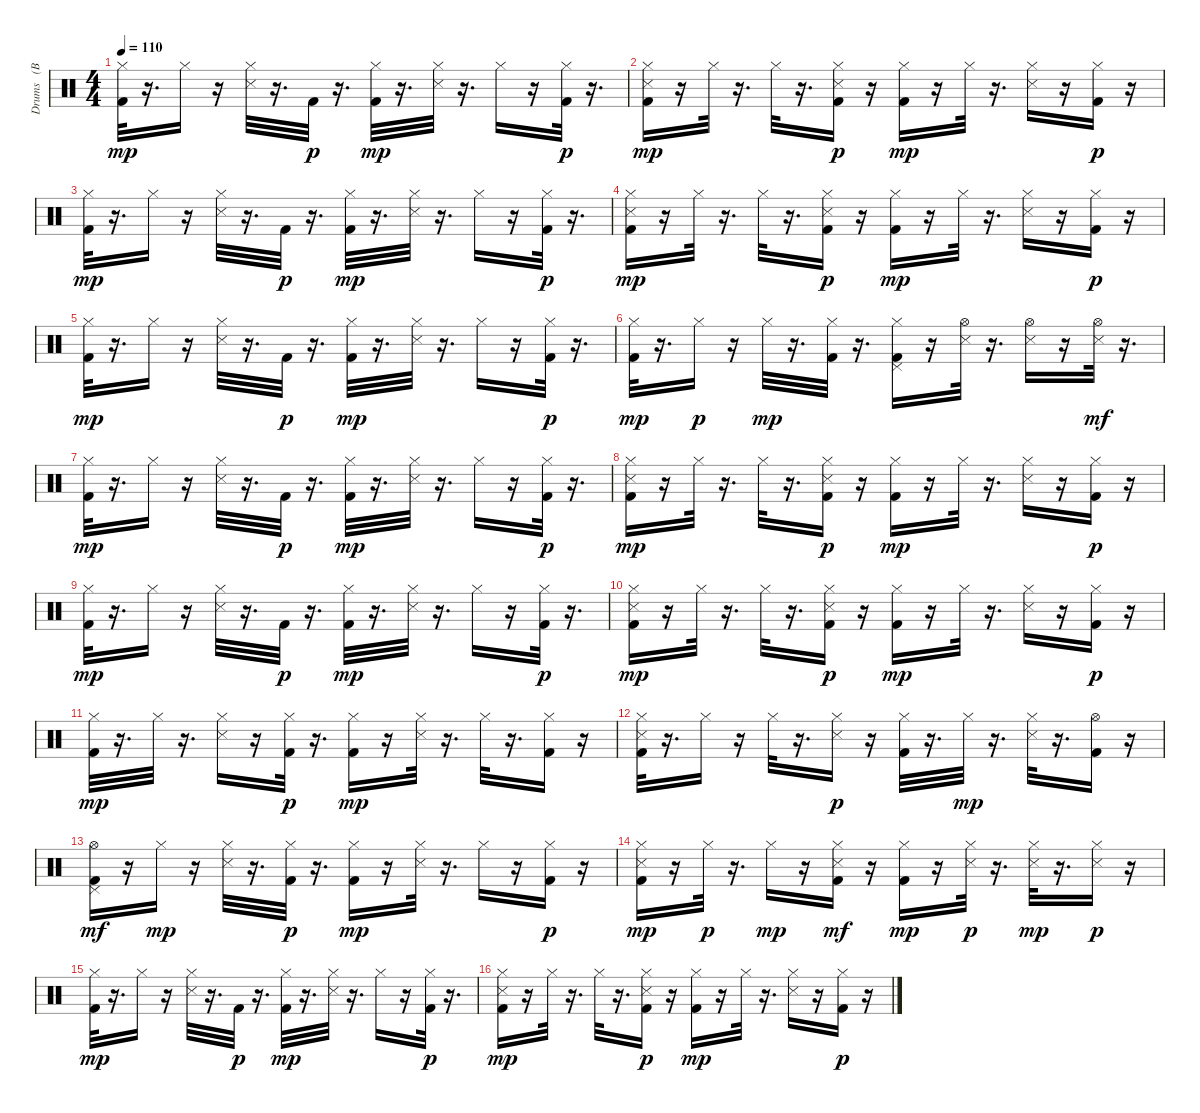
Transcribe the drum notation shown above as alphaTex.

\track ("Drums   (BB)" "Drums   (B") {instrument percussion}
\staff {score}
\articulation defaults
\ts (4 4)
\tempo 110
\clef neutral
\ks c
("Kick (hit) 2" "Hi-Hat (closed)").32{dy mp} r.16{d} "Hi-Hat (closed)".16 r.16 ("Hi-Hat (closed)" "Snare (side stick) 3").32 r.16{d} "Kick (hit) 2".32{dy p} r.16{d} ("Kick (hit) 2" "Hi-Hat (closed)").32{dy mp} r.16{d} ("Snare (side stick) 3" "Hi-Hat (closed)").32 r.16{d} "Hi-Hat (closed)".16 r.16 ("Hi-Hat (closed)" "Kick (hit) 2").32{dy p} r.16{d} |
("Kick (hit) 2" "Snare (side stick) 3" "Hi-Hat (closed)").16{dy mp} r.16 "Hi-Hat (closed)".32 r.16{d} "Hi-Hat (closed)".32 r.16{d} ("Snare (side stick) 3" "Hi-Hat (closed)" "Kick (hit) 2").16{dy p} r.16 ("Hi-Hat (closed)" "Kick (hit) 2").16{dy mp} r.16 "Hi-Hat (closed)".32 r.16{d} ("Snare (side stick) 3" "Hi-Hat (closed)").16 r.16 ("Hi-Hat (closed)" "Kick (hit) 2").16{dy p} r.16 |
("Kick (hit) 2" "Hi-Hat (closed)").32{dy mp} r.16{d} "Hi-Hat (closed)".16 r.16 ("Hi-Hat (closed)" "Snare (side stick) 3").32 r.16{d} "Kick (hit) 2".32{dy p} r.16{d} ("Kick (hit) 2" "Hi-Hat (closed)").32{dy mp} r.16{d} ("Snare (side stick) 3" "Hi-Hat (closed)").32 r.16{d} "Hi-Hat (closed)".16 r.16 ("Hi-Hat (closed)" "Kick (hit) 2").32{dy p} r.16{d} |
("Kick (hit) 2" "Snare (side stick) 3" "Hi-Hat (closed)").16{dy mp} r.16 "Hi-Hat (closed)".32 r.16{d} "Hi-Hat (closed)".32 r.16{d} ("Snare (side stick) 3" "Hi-Hat (closed)" "Kick (hit) 2").16{dy p} r.16 ("Hi-Hat (closed)" "Kick (hit) 2").16{dy mp} r.16 "Hi-Hat (closed)".32 r.16{d} ("Snare (side stick) 3" "Hi-Hat (closed)").16 r.16 ("Hi-Hat (closed)" "Kick (hit) 2").16{dy p} r.16 |
("Kick (hit) 2" "Hi-Hat (closed)").32{dy mp} r.16{d} "Hi-Hat (closed)".16 r.16 ("Hi-Hat (closed)" "Snare (side stick) 3").32 r.16{d} "Kick (hit) 2".32{dy p} r.16{d} ("Kick (hit) 2" "Hi-Hat (closed)").32{dy mp} r.16{d} ("Snare (side stick) 3" "Hi-Hat (closed)").32 r.16{d} "Hi-Hat (closed)".16 r.16 ("Hi-Hat (closed)" "Kick (hit) 2").32{dy p} r.16{d} |
("Hi-Hat (closed)" "Kick (hit) 2").32{dy mp} r.16{d} "Hi-Hat (closed)".16{dy p} r.16 "Hi-Hat (closed)".32{dy mp} r.16{d} ("Kick (hit) 2" "Hi-Hat (closed)").32 r.16{d} ("Pedal Hi-Hat (hit)" "Kick (hit) 2" "Hi-Hat (closed)").16 r.16 ("Hi-Hat (open)" "Snare (side stick) 3").32 r.16{d} ("Hi-Hat (open)" "Snare (side stick) 3").16 r.16 ("Hi-Hat (open)" "Snare (side stick) 3").32{dy mf} r.16{d} |
("Kick (hit) 2" "Hi-Hat (closed)").32{dy mp} r.16{d} "Hi-Hat (closed)".16 r.16 ("Hi-Hat (closed)" "Snare (side stick) 3").32 r.16{d} "Kick (hit) 2".32{dy p} r.16{d} ("Kick (hit) 2" "Hi-Hat (closed)").32{dy mp} r.16{d} ("Snare (side stick) 3" "Hi-Hat (closed)").32 r.16{d} "Hi-Hat (closed)".16 r.16 ("Hi-Hat (closed)" "Kick (hit) 2").32{dy p} r.16{d} |
("Kick (hit) 2" "Snare (side stick) 3" "Hi-Hat (closed)").16{dy mp} r.16 "Hi-Hat (closed)".32 r.16{d} "Hi-Hat (closed)".32 r.16{d} ("Snare (side stick) 3" "Hi-Hat (closed)" "Kick (hit) 2").16{dy p} r.16 ("Hi-Hat (closed)" "Kick (hit) 2").16{dy mp} r.16 "Hi-Hat (closed)".32 r.16{d} ("Snare (side stick) 3" "Hi-Hat (closed)").16 r.16 ("Hi-Hat (closed)" "Kick (hit) 2").16{dy p} r.16 |
("Kick (hit) 2" "Hi-Hat (closed)").32{dy mp} r.16{d} "Hi-Hat (closed)".16 r.16 ("Hi-Hat (closed)" "Snare (side stick) 3").32 r.16{d} "Kick (hit) 2".32{dy p} r.16{d} ("Kick (hit) 2" "Hi-Hat (closed)").32{dy mp} r.16{d} ("Snare (side stick) 3" "Hi-Hat (closed)").32 r.16{d} "Hi-Hat (closed)".16 r.16 ("Hi-Hat (closed)" "Kick (hit) 2").32{dy p} r.16{d} |
("Kick (hit) 2" "Snare (side stick) 3" "Hi-Hat (closed)").16{dy mp} r.16 "Hi-Hat (closed)".32 r.16{d} "Hi-Hat (closed)".32 r.16{d} ("Snare (side stick) 3" "Hi-Hat (closed)" "Kick (hit) 2").16{dy p} r.16 ("Hi-Hat (closed)" "Kick (hit) 2").16{dy mp} r.16 "Hi-Hat (closed)".32 r.16{d} ("Snare (side stick) 3" "Hi-Hat (closed)").16 r.16 ("Hi-Hat (closed)" "Kick (hit) 2").16{dy p} r.16 |
("Kick (hit) 2" "Hi-Hat (closed)").32{dy mp} r.16{d} "Hi-Hat (closed)".32 r.16{d} ("Snare (side stick) 3" "Hi-Hat (closed)").16 r.16 ("Hi-Hat (closed)" "Kick (hit) 2").32{dy p} r.16{d} ("Kick (hit) 2" "Hi-Hat (closed)").16{dy mp} r.16 ("Snare (side stick) 3" "Hi-Hat (closed)").32 r.16{d} "Hi-Hat (closed)".32 r.16{d} ("Kick (hit) 2" "Hi-Hat (closed)").16 r.16 |
("Kick (hit) 2" "Snare (side stick) 3" "Hi-Hat (closed)").32 r.16{d} "Hi-Hat (closed)".16 r.16 "Hi-Hat (closed)".32 r.16{d} ("Hi-Hat (closed)" "Snare (side stick) 3").16{dy p} r.16 ("Hi-Hat (closed)" "Kick (hit) 2").32 r.16{d} "Hi-Hat (closed)".32{dy mp} r.16{d} ("Snare (side stick) 3" "Hi-Hat (closed)").32 r.16{d} ("Kick (hit) 2" "Hi-Hat (open)").16 r.16 |
("Kick (hit) 2" "Hi-Hat (open)" "Pedal Hi-Hat (hit)").16{dy mf} r.16 "Hi-Hat (closed)".16{dy mp} r.16 ("Snare (side stick) 3" "Hi-Hat (closed)").32 r.16{d} ("Hi-Hat (closed)" "Kick (hit) 2").32{dy p} r.16{d} ("Hi-Hat (closed)" "Kick (hit) 2").16{dy mp} r.16 ("Snare (side stick) 3" "Hi-Hat (closed)").32 r.16{d} "Hi-Hat (closed)".16 r.16 ("Hi-Hat (closed)" "Kick (hit) 2").16{dy p} r.16 |
("Kick (hit) 2" "Snare (side stick) 3" "Hi-Hat (closed)").16{dy mp} r.16 "Hi-Hat (closed)".32{dy p} r.16{d} "Hi-Hat (closed)".16{dy mp} r.16 ("Kick (hit) 2" "Hi-Hat (closed)" "Snare (side stick) 3").16{dy mf} r.16 ("Kick (hit) 2" "Hi-Hat (closed)").16{dy mp} r.16 ("Hi-Hat (closed)" "Snare (side stick) 3").32{dy p} r.16{d} ("Snare (side stick) 3" "Hi-Hat (closed)").32{dy mp} r.16{d} ("Hi-Hat (closed)" "Snare (side stick) 3").16{dy p} r.16 |
("Kick (hit) 2" "Hi-Hat (closed)").32{dy mp} r.16{d} "Hi-Hat (closed)".16 r.16 ("Hi-Hat (closed)" "Snare (side stick) 3").32 r.16{d} "Kick (hit) 2".32{dy p} r.16{d} ("Kick (hit) 2" "Hi-Hat (closed)").32{dy mp} r.16{d} ("Snare (side stick) 3" "Hi-Hat (closed)").32 r.16{d} "Hi-Hat (closed)".16 r.16 ("Hi-Hat (closed)" "Kick (hit) 2").32{dy p} r.16{d} |
("Kick (hit) 2" "Snare (side stick) 3" "Hi-Hat (closed)").16{dy mp} r.16 "Hi-Hat (closed)".32 r.16{d} "Hi-Hat (closed)".32 r.16{d} ("Snare (side stick) 3" "Hi-Hat (closed)" "Kick (hit) 2").16{dy p} r.16 ("Hi-Hat (closed)" "Kick (hit) 2").16{dy mp} r.16 "Hi-Hat (closed)".32 r.16{d} ("Snare (side stick) 3" "Hi-Hat (closed)").16 r.16 ("Hi-Hat (closed)" "Kick (hit) 2").16{dy p} r.16
